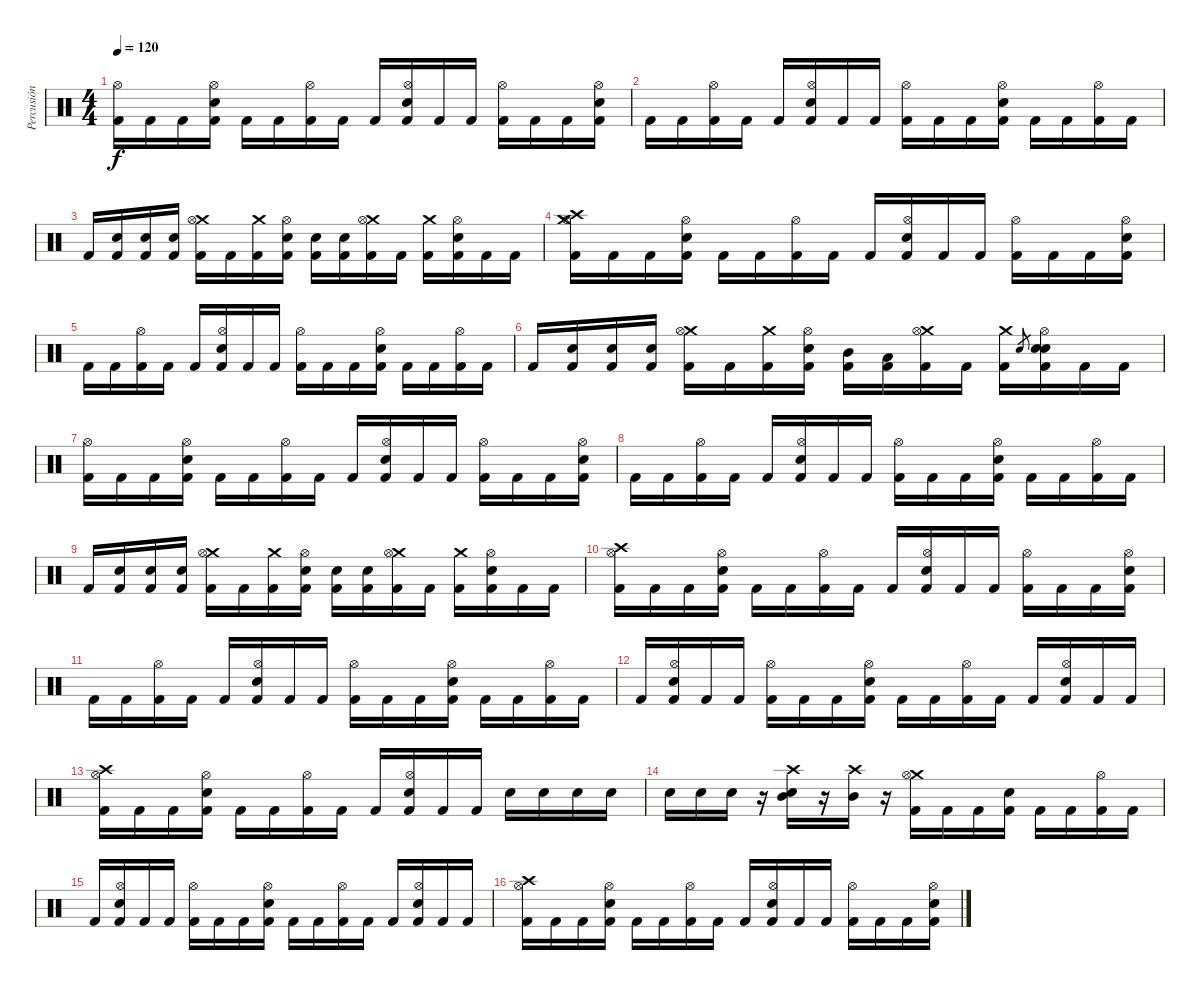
\track ("Percusión" "Percusión") {instrument percussion}
\staff {score}
\articulation defaults
\ts (4 4)
\tempo 120
\clef neutral
\ks c
("Kick (hit) 2" "Hi-Hat (open)").16{dy f} "Kick (hit) 2".16 "Kick (hit) 2".16 ("Kick (hit) 2" "Hi-Hat (open)" "Electric Snare (hit)").16 "Kick (hit) 2".16 "Kick (hit) 2".16 ("Kick (hit) 2" "Hi-Hat (open)").16 "Kick (hit) 2".16 "Kick (hit) 2".16 ("Kick (hit) 2" "Hi-Hat (open)" "Electric Snare (hit)").16 "Kick (hit) 2".16 "Kick (hit) 2".16 ("Kick (hit) 2" "Hi-Hat (open)").16 "Kick (hit) 2".16 "Kick (hit) 2".16 ("Kick (hit) 2" "Hi-Hat (open)" "Electric Snare (hit)").16 |
"Kick (hit) 2".16 "Kick (hit) 2".16 ("Kick (hit) 2" "Hi-Hat (open)").16 "Kick (hit) 2".16 "Kick (hit) 2".16 ("Kick (hit) 2" "Hi-Hat (open)" "Electric Snare (hit)").16 "Kick (hit) 2".16 "Kick (hit) 2".16 ("Kick (hit) 2" "Hi-Hat (open)").16 "Kick (hit) 2".16 "Kick (hit) 2".16 ("Kick (hit) 2" "Hi-Hat (open)" "Electric Snare (hit)").16 "Kick (hit) 2".16 "Kick (hit) 2".16 ("Kick (hit) 2" "Hi-Hat (open)").16 "Kick (hit) 2".16 |
"Kick (hit) 2".16 ("Kick (hit) 2" "Electric Snare (hit)").16 ("Kick (hit) 2" "Electric Snare (hit)").16 ("Kick (hit) 2" "Electric Snare (hit)").16 ("Kick (hit) 2" "Crash medium (hit)" "Hi-Hat (open)").16 "Kick (hit) 2".16 ("Kick (hit) 2" "Crash medium (hit)").16 ("Kick (hit) 2" "Hi-Hat (open)" "Electric Snare (hit)").16 ("Kick (hit) 2" "Electric Snare (hit)").16 ("Kick (hit) 2" "Electric Snare (hit)").16 ("Kick (hit) 2" "Crash medium (hit)" "Hi-Hat (open)").16 "Kick (hit) 2".16 ("Kick (hit) 2" "Crash medium (hit)").16 ("Kick (hit) 2" "Hi-Hat (open)" "Electric Snare (hit)").16 "Kick (hit) 2".16 "Kick (hit) 2".16 |
("Kick (hit) 2" "Crash high (hit)" "Crash medium (hit)" "Hi-Hat (open)").16 "Kick (hit) 2".16 "Kick (hit) 2".16 ("Kick (hit) 2" "Hi-Hat (open)" "Electric Snare (hit)").16 "Kick (hit) 2".16 "Kick (hit) 2".16 ("Kick (hit) 2" "Hi-Hat (open)").16 "Kick (hit) 2".16 "Kick (hit) 2".16 ("Kick (hit) 2" "Hi-Hat (open)" "Electric Snare (hit)").16 "Kick (hit) 2".16 "Kick (hit) 2".16 ("Kick (hit) 2" "Hi-Hat (open)").16 "Kick (hit) 2".16 "Kick (hit) 2".16 ("Kick (hit) 2" "Hi-Hat (open)" "Electric Snare (hit)").16 |
"Kick (hit) 2".16 "Kick (hit) 2".16 ("Kick (hit) 2" "Hi-Hat (open)").16 "Kick (hit) 2".16 "Kick (hit) 2".16 ("Kick (hit) 2" "Hi-Hat (open)" "Electric Snare (hit)").16 "Kick (hit) 2".16 "Kick (hit) 2".16 ("Kick (hit) 2" "Hi-Hat (open)").16 "Kick (hit) 2".16 "Kick (hit) 2".16 ("Kick (hit) 2" "Hi-Hat (open)" "Electric Snare (hit)").16 "Kick (hit) 2".16 "Kick (hit) 2".16 ("Kick (hit) 2" "Hi-Hat (open)").16 "Kick (hit) 2".16 |
"Kick (hit) 2".16 ("Kick (hit) 2" "Electric Snare (hit)").16 ("Kick (hit) 2" "Electric Snare (hit)").16 ("Kick (hit) 2" "Electric Snare (hit)").16 ("Kick (hit) 2" "Crash medium (hit)" "Hi-Hat (open)").16 "Kick (hit) 2".16 ("Kick (hit) 2" "Crash medium (hit)").16 ("Kick (hit) 2" "Hi-Hat (open)" "Electric Snare (hit)").16 ("Kick (hit) 2" "Mid Tom (hit)").16 ("Kick (hit) 2" "Low Tom (hit)").16 ("Kick (hit) 2" "Crash medium (hit)" "Hi-Hat (open)").16 "Kick (hit) 2".16 ("Kick (hit) 2" "Crash medium (hit)").16 "Electric Snare (hit)".8{gr} ("Kick (hit) 2" "Hi-Hat (open)" "Electric Snare (hit)" "Electric Snare (hit)").16 "Kick (hit) 2".16 "Kick (hit) 2".16 |
("Kick (hit) 2" "Hi-Hat (open)").16 "Kick (hit) 2".16 "Kick (hit) 2".16 ("Kick (hit) 2" "Hi-Hat (open)" "Electric Snare (hit)").16 "Kick (hit) 2".16 "Kick (hit) 2".16 ("Kick (hit) 2" "Hi-Hat (open)").16 "Kick (hit) 2".16 "Kick (hit) 2".16 ("Kick (hit) 2" "Hi-Hat (open)" "Electric Snare (hit)").16 "Kick (hit) 2".16 "Kick (hit) 2".16 ("Kick (hit) 2" "Hi-Hat (open)").16 "Kick (hit) 2".16 "Kick (hit) 2".16 ("Kick (hit) 2" "Hi-Hat (open)" "Electric Snare (hit)").16 |
"Kick (hit) 2".16 "Kick (hit) 2".16 ("Kick (hit) 2" "Hi-Hat (open)").16 "Kick (hit) 2".16 "Kick (hit) 2".16 ("Kick (hit) 2" "Hi-Hat (open)" "Electric Snare (hit)").16 "Kick (hit) 2".16 "Kick (hit) 2".16 ("Kick (hit) 2" "Hi-Hat (open)").16 "Kick (hit) 2".16 "Kick (hit) 2".16 ("Kick (hit) 2" "Hi-Hat (open)" "Electric Snare (hit)").16 "Kick (hit) 2".16 "Kick (hit) 2".16 ("Kick (hit) 2" "Hi-Hat (open)").16 "Kick (hit) 2".16 |
"Kick (hit) 2".16 ("Kick (hit) 2" "Electric Snare (hit)").16 ("Kick (hit) 2" "Electric Snare (hit)").16 ("Kick (hit) 2" "Electric Snare (hit)").16 ("Kick (hit) 2" "Crash medium (hit)" "Hi-Hat (open)").16 "Kick (hit) 2".16 ("Kick (hit) 2" "Crash medium (hit)").16 ("Kick (hit) 2" "Hi-Hat (open)" "Electric Snare (hit)").16 ("Kick (hit) 2" "Electric Snare (hit)").16 ("Kick (hit) 2" "Electric Snare (hit)").16 ("Kick (hit) 2" "Crash medium (hit)" "Hi-Hat (open)").16 "Kick (hit) 2".16 ("Kick (hit) 2" "Crash medium (hit)").16 ("Kick (hit) 2" "Hi-Hat (open)" "Electric Snare (hit)").16 "Kick (hit) 2".16 "Kick (hit) 2".16 |
("Kick (hit) 2" "Crash high (hit)" "Hi-Hat (open)").16 "Kick (hit) 2".16 "Kick (hit) 2".16 ("Kick (hit) 2" "Hi-Hat (open)" "Electric Snare (hit)").16 "Kick (hit) 2".16 "Kick (hit) 2".16 ("Kick (hit) 2" "Hi-Hat (open)").16 "Kick (hit) 2".16 "Kick (hit) 2".16 ("Kick (hit) 2" "Hi-Hat (open)" "Electric Snare (hit)").16 "Kick (hit) 2".16 "Kick (hit) 2".16 ("Kick (hit) 2" "Hi-Hat (open)").16 "Kick (hit) 2".16 "Kick (hit) 2".16 ("Kick (hit) 2" "Hi-Hat (open)" "Electric Snare (hit)").16 |
"Kick (hit) 2".16 "Kick (hit) 2".16 ("Kick (hit) 2" "Hi-Hat (open)").16 "Kick (hit) 2".16 "Kick (hit) 2".16 ("Kick (hit) 2" "Electric Snare (hit)" "Hi-Hat (open)").16 "Kick (hit) 2".16 "Kick (hit) 2".16 ("Kick (hit) 2" "Hi-Hat (open)").16 "Kick (hit) 2".16 "Kick (hit) 2".16 ("Kick (hit) 2" "Hi-Hat (open)" "Electric Snare (hit)").16 "Kick (hit) 2".16 "Kick (hit) 2".16 ("Kick (hit) 2" "Hi-Hat (open)").16 "Kick (hit) 2".16 |
"Kick (hit) 2".16 ("Kick (hit) 2" "Hi-Hat (open)" "Electric Snare (hit)").16 "Kick (hit) 2".16 "Kick (hit) 2".16 ("Kick (hit) 2" "Hi-Hat (open)").16 "Kick (hit) 2".16 "Kick (hit) 2".16 ("Kick (hit) 2" "Hi-Hat (open)" "Electric Snare (hit)").16 "Kick (hit) 2".16 "Kick (hit) 2".16 ("Kick (hit) 2" "Hi-Hat (open)").16 "Kick (hit) 2".16 "Kick (hit) 2".16 ("Kick (hit) 2" "Hi-Hat (open)" "Electric Snare (hit)").16 "Kick (hit) 2".16 "Kick (hit) 2".16 |
("Kick (hit) 2" "Crash high (hit)" "Hi-Hat (open)").16 "Kick (hit) 2".16 "Kick (hit) 2".16 ("Kick (hit) 2" "Hi-Hat (open)" "Electric Snare (hit)").16 "Kick (hit) 2".16 "Kick (hit) 2".16 ("Kick (hit) 2" "Hi-Hat (open)").16 "Kick (hit) 2".16 "Kick (hit) 2".16 ("Kick (hit) 2" "Hi-Hat (open)" "Electric Snare (hit)").16 "Kick (hit) 2".16 "Kick (hit) 2".16 "Electric Snare (hit)".16 "Electric Snare (hit)".16 "Electric Snare (hit)".16 "Electric Snare (hit)".16 |
"Electric Snare (hit)".16 "Electric Snare (hit)".16 "Electric Snare (hit)".16 r.16 ("Mid Tom (hit)" "Electric Snare (hit)" "Crash high (hit)").16 r.16 ("Mid Tom (hit)" "Crash high (hit)").16 r.16 ("Kick (hit) 2" "Crash medium (hit)" "Hi-Hat (open)").16 "Kick (hit) 2".16 "Kick (hit) 2".16 ("Kick (hit) 2" "Electric Snare (hit)").16 "Kick (hit) 2".16 "Kick (hit) 2".16 ("Kick (hit) 2" "Hi-Hat (open)").16 "Kick (hit) 2".16 |
"Kick (hit) 2".16 ("Kick (hit) 2" "Hi-Hat (open)" "Electric Snare (hit)").16 "Kick (hit) 2".16 "Kick (hit) 2".16 ("Kick (hit) 2" "Hi-Hat (open)").16 "Kick (hit) 2".16 "Kick (hit) 2".16 ("Kick (hit) 2" "Hi-Hat (open)" "Electric Snare (hit)").16 "Kick (hit) 2".16 "Kick (hit) 2".16 ("Kick (hit) 2" "Hi-Hat (open)").16 "Kick (hit) 2".16 "Kick (hit) 2".16 ("Kick (hit) 2" "Hi-Hat (open)" "Electric Snare (hit)").16 "Kick (hit) 2".16 "Kick (hit) 2".16 |
("Kick (hit) 2" "Crash high (hit)" "Hi-Hat (open)").16 "Kick (hit) 2".16 "Kick (hit) 2".16 ("Kick (hit) 2" "Hi-Hat (open)" "Electric Snare (hit)").16 "Kick (hit) 2".16 "Kick (hit) 2".16 ("Kick (hit) 2" "Hi-Hat (open)").16 "Kick (hit) 2".16 "Kick (hit) 2".16 ("Kick (hit) 2" "Hi-Hat (open)" "Electric Snare (hit)").16 "Kick (hit) 2".16 "Kick (hit) 2".16 ("Kick (hit) 2" "Hi-Hat (open)").16 "Kick (hit) 2".16 "Kick (hit) 2".16 ("Kick (hit) 2" "Hi-Hat (open)" "Electric Snare (hit)").16
